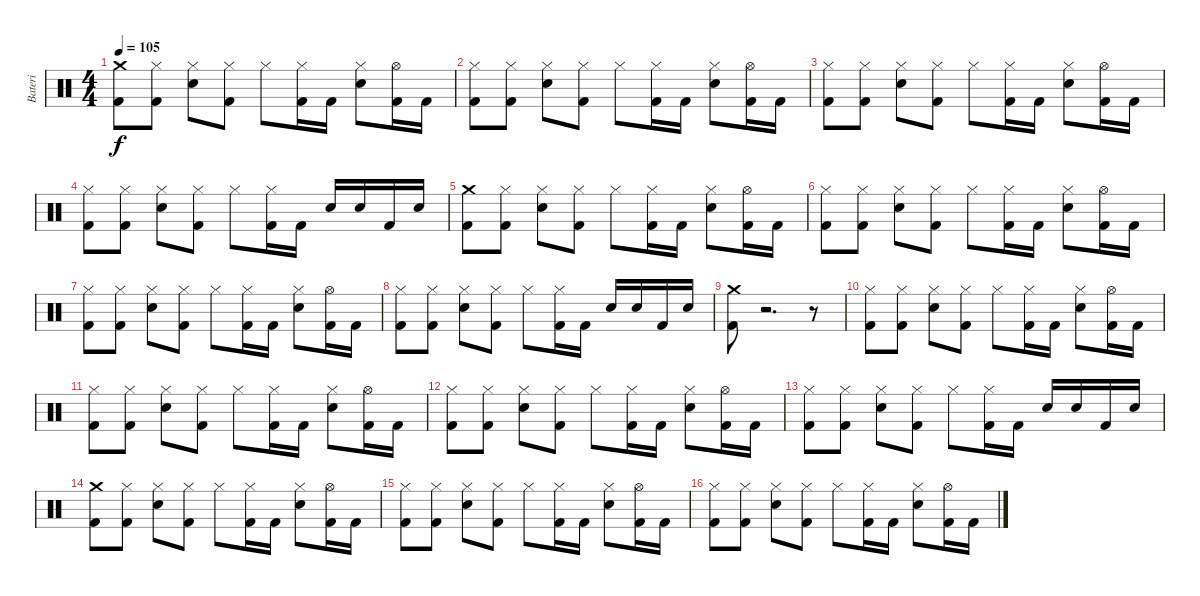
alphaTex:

\track ("Bateri" "Bateri") {instrument percussion}
\staff {score}
\articulation defaults
\ts (4 4)
\tempo 105
\clef neutral
\ks c
("Crash medium (hit)" "Kick (hit) 2").8{dy f} ("Hi-Hat (closed)" "Kick (hit) 2").8 ("Hi-Hat (closed)" "Electric Snare (hit)").8 ("Hi-Hat (closed)" "Kick (hit) 2").8 "Hi-Hat (closed)".8 ("Hi-Hat (closed)" "Kick (hit) 2").16 "Kick (hit) 2".16 ("Hi-Hat (closed)" "Electric Snare (hit)").8 ("Hi-Hat (open)" "Kick (hit) 2").16 "Kick (hit) 2".16 |
("Hi-Hat (closed)" "Kick (hit) 2").8 ("Hi-Hat (closed)" "Kick (hit) 2").8 ("Hi-Hat (closed)" "Electric Snare (hit)").8 ("Hi-Hat (closed)" "Kick (hit) 2").8 "Hi-Hat (closed)".8 ("Hi-Hat (closed)" "Kick (hit) 2").16 "Kick (hit) 2".16 ("Hi-Hat (closed)" "Electric Snare (hit)").8 ("Hi-Hat (open)" "Kick (hit) 2").16 "Kick (hit) 2".16 |
("Hi-Hat (closed)" "Kick (hit) 2").8 ("Hi-Hat (closed)" "Kick (hit) 2").8 ("Hi-Hat (closed)" "Electric Snare (hit)").8 ("Hi-Hat (closed)" "Kick (hit) 2").8 "Hi-Hat (closed)".8 ("Hi-Hat (closed)" "Kick (hit) 2").16 "Kick (hit) 2".16 ("Hi-Hat (closed)" "Electric Snare (hit)").8 ("Hi-Hat (open)" "Kick (hit) 2").16 "Kick (hit) 2".16 |
("Hi-Hat (closed)" "Kick (hit) 2").8 ("Hi-Hat (closed)" "Kick (hit) 2").8 ("Hi-Hat (closed)" "Electric Snare (hit)").8 ("Hi-Hat (closed)" "Kick (hit) 2").8 "Hi-Hat (closed)".8 ("Hi-Hat (closed)" "Kick (hit) 2").16 "Kick (hit) 2".16 "Electric Snare (hit)".16 "Electric Snare (hit)".16 "Kick (hit) 2".16 "Electric Snare (hit)".16 |
("Crash medium (hit)" "Kick (hit) 2").8 ("Hi-Hat (closed)" "Kick (hit) 2").8 ("Hi-Hat (closed)" "Electric Snare (hit)").8 ("Hi-Hat (closed)" "Kick (hit) 2").8 "Hi-Hat (closed)".8 ("Hi-Hat (closed)" "Kick (hit) 2").16 "Kick (hit) 2".16 ("Hi-Hat (closed)" "Electric Snare (hit)").8 ("Hi-Hat (open)" "Kick (hit) 2").16 "Kick (hit) 2".16 |
("Hi-Hat (closed)" "Kick (hit) 2").8 ("Hi-Hat (closed)" "Kick (hit) 2").8 ("Hi-Hat (closed)" "Electric Snare (hit)").8 ("Hi-Hat (closed)" "Kick (hit) 2").8 "Hi-Hat (closed)".8 ("Hi-Hat (closed)" "Kick (hit) 2").16 "Kick (hit) 2".16 ("Hi-Hat (closed)" "Electric Snare (hit)").8 ("Hi-Hat (open)" "Kick (hit) 2").16 "Kick (hit) 2".16 |
("Hi-Hat (closed)" "Kick (hit) 2").8 ("Hi-Hat (closed)" "Kick (hit) 2").8 ("Hi-Hat (closed)" "Electric Snare (hit)").8 ("Hi-Hat (closed)" "Kick (hit) 2").8 "Hi-Hat (closed)".8 ("Hi-Hat (closed)" "Kick (hit) 2").16 "Kick (hit) 2".16 ("Hi-Hat (closed)" "Electric Snare (hit)").8 ("Hi-Hat (open)" "Kick (hit) 2").16 "Kick (hit) 2".16 |
("Hi-Hat (closed)" "Kick (hit) 2").8 ("Hi-Hat (closed)" "Kick (hit) 2").8 ("Hi-Hat (closed)" "Electric Snare (hit)").8 ("Hi-Hat (closed)" "Kick (hit) 2").8 "Hi-Hat (closed)".8 ("Hi-Hat (closed)" "Kick (hit) 2").16 "Kick (hit) 2".16 "Electric Snare (hit)".16 "Electric Snare (hit)".16 "Kick (hit) 2".16 "Electric Snare (hit)".16 |
("Crash medium (hit)" "Kick (hit) 2").8 r.2{d} r.8 |
("Hi-Hat (closed)" "Kick (hit) 2").8 ("Hi-Hat (closed)" "Kick (hit) 2").8 ("Hi-Hat (closed)" "Electric Snare (hit)").8 ("Hi-Hat (closed)" "Kick (hit) 2").8 "Hi-Hat (closed)".8 ("Hi-Hat (closed)" "Kick (hit) 2").16 "Kick (hit) 2".16 ("Hi-Hat (closed)" "Electric Snare (hit)").8 ("Hi-Hat (open)" "Kick (hit) 2").16 "Kick (hit) 2".16 |
("Hi-Hat (closed)" "Kick (hit) 2").8 ("Hi-Hat (closed)" "Kick (hit) 2").8 ("Hi-Hat (closed)" "Electric Snare (hit)").8 ("Hi-Hat (closed)" "Kick (hit) 2").8 "Hi-Hat (closed)".8 ("Hi-Hat (closed)" "Kick (hit) 2").16 "Kick (hit) 2".16 ("Hi-Hat (closed)" "Electric Snare (hit)").8 ("Hi-Hat (open)" "Kick (hit) 2").16 "Kick (hit) 2".16 |
("Hi-Hat (closed)" "Kick (hit) 2").8 ("Hi-Hat (closed)" "Kick (hit) 2").8 ("Hi-Hat (closed)" "Electric Snare (hit)").8 ("Hi-Hat (closed)" "Kick (hit) 2").8 "Hi-Hat (closed)".8 ("Hi-Hat (closed)" "Kick (hit) 2").16 "Kick (hit) 2".16 ("Hi-Hat (closed)" "Electric Snare (hit)").8 ("Hi-Hat (open)" "Kick (hit) 2").16 "Kick (hit) 2".16 |
("Hi-Hat (closed)" "Kick (hit) 2").8 ("Hi-Hat (closed)" "Kick (hit) 2").8 ("Hi-Hat (closed)" "Electric Snare (hit)").8 ("Hi-Hat (closed)" "Kick (hit) 2").8 "Hi-Hat (closed)".8 ("Hi-Hat (closed)" "Kick (hit) 2").16 "Kick (hit) 2".16 "Electric Snare (hit)".16 "Electric Snare (hit)".16 "Kick (hit) 2".16 "Electric Snare (hit)".16 |
("Crash medium (hit)" "Kick (hit) 2").8 ("Hi-Hat (closed)" "Kick (hit) 2").8 ("Hi-Hat (closed)" "Electric Snare (hit)").8 ("Hi-Hat (closed)" "Kick (hit) 2").8 "Hi-Hat (closed)".8 ("Hi-Hat (closed)" "Kick (hit) 2").16 "Kick (hit) 2".16 ("Hi-Hat (closed)" "Electric Snare (hit)").8 ("Hi-Hat (open)" "Kick (hit) 2").16 "Kick (hit) 2".16 |
("Hi-Hat (closed)" "Kick (hit) 2").8 ("Hi-Hat (closed)" "Kick (hit) 2").8 ("Hi-Hat (closed)" "Electric Snare (hit)").8 ("Hi-Hat (closed)" "Kick (hit) 2").8 "Hi-Hat (closed)".8 ("Hi-Hat (closed)" "Kick (hit) 2").16 "Kick (hit) 2".16 ("Hi-Hat (closed)" "Electric Snare (hit)").8 ("Hi-Hat (open)" "Kick (hit) 2").16 "Kick (hit) 2".16 |
("Hi-Hat (closed)" "Kick (hit) 2").8 ("Hi-Hat (closed)" "Kick (hit) 2").8 ("Hi-Hat (closed)" "Electric Snare (hit)").8 ("Hi-Hat (closed)" "Kick (hit) 2").8 "Hi-Hat (closed)".8 ("Hi-Hat (closed)" "Kick (hit) 2").16 "Kick (hit) 2".16 ("Hi-Hat (closed)" "Electric Snare (hit)").8 ("Hi-Hat (open)" "Kick (hit) 2").16 "Kick (hit) 2".16
